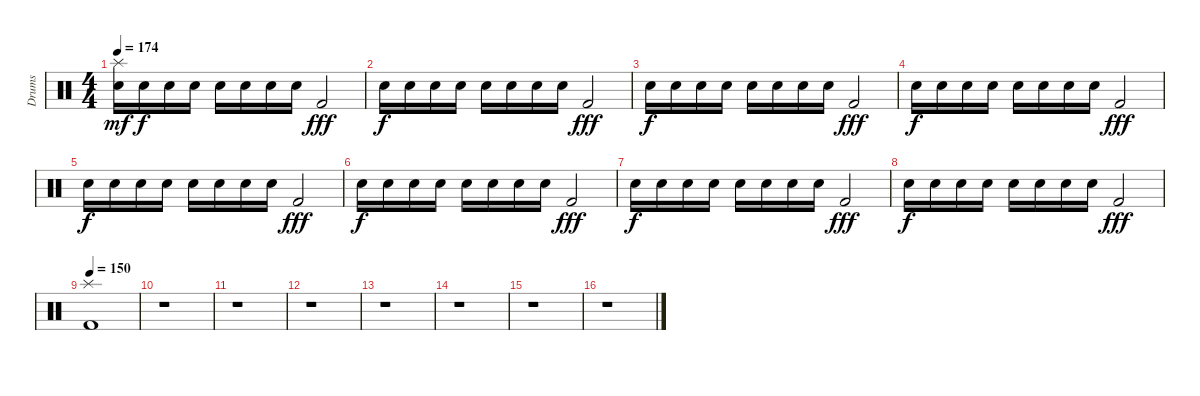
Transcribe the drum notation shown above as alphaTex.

\track ("Drums" "Drums") {instrument percussion}
\staff {score}
\articulation defaults
\ts (4 4)
\tempo 174
\clef neutral
\ks c
("Splash (hit)" "Snare (hit) 2").16{dy mf} "Snare (hit) 2".16{dy f} "Snare (hit) 2".16 "Snare (hit) 2".16 "Snare (hit) 2".16 "Snare (hit) 2".16 "Snare (hit) 2".16 "Snare (hit) 2".16 "Kick (hit) 2".2{dy fff} |
"Snare (hit) 2".16{dy f} "Snare (hit) 2".16 "Snare (hit) 2".16 "Snare (hit) 2".16 "Snare (hit) 2".16 "Snare (hit) 2".16 "Snare (hit) 2".16 "Snare (hit) 2".16 "Kick (hit) 2".2{dy fff} |
"Snare (hit) 2".16{dy f} "Snare (hit) 2".16 "Snare (hit) 2".16 "Snare (hit) 2".16 "Snare (hit) 2".16 "Snare (hit) 2".16 "Snare (hit) 2".16 "Snare (hit) 2".16 "Kick (hit) 2".2{dy fff} |
"Snare (hit) 2".16{dy f} "Snare (hit) 2".16 "Snare (hit) 2".16 "Snare (hit) 2".16 "Snare (hit) 2".16 "Snare (hit) 2".16 "Snare (hit) 2".16 "Snare (hit) 2".16 "Kick (hit) 2".2{dy fff} |
"Snare (hit) 2".16{dy f} "Snare (hit) 2".16 "Snare (hit) 2".16 "Snare (hit) 2".16 "Snare (hit) 2".16 "Snare (hit) 2".16 "Snare (hit) 2".16 "Snare (hit) 2".16 "Kick (hit) 2".2{dy fff} |
"Snare (hit) 2".16{dy f} "Snare (hit) 2".16 "Snare (hit) 2".16 "Snare (hit) 2".16 "Snare (hit) 2".16 "Snare (hit) 2".16 "Snare (hit) 2".16 "Snare (hit) 2".16 "Kick (hit) 2".2{dy fff} |
"Snare (hit) 2".16{dy f} "Snare (hit) 2".16 "Snare (hit) 2".16 "Snare (hit) 2".16 "Snare (hit) 2".16 "Snare (hit) 2".16 "Snare (hit) 2".16 "Snare (hit) 2".16 "Kick (hit) 2".2{dy fff} |
"Snare (hit) 2".16{dy f} "Snare (hit) 2".16 "Snare (hit) 2".16 "Snare (hit) 2".16 "Snare (hit) 2".16 "Snare (hit) 2".16 "Snare (hit) 2".16 "Snare (hit) 2".16 "Kick (hit) 2".2{dy fff} |
\tempo 150
("Splash (hit)" "Kick (hit) 2").1 |
r.1 |
r.1 |
r.1 |
r.1 |
r.1 |
r.1 |
r.1
